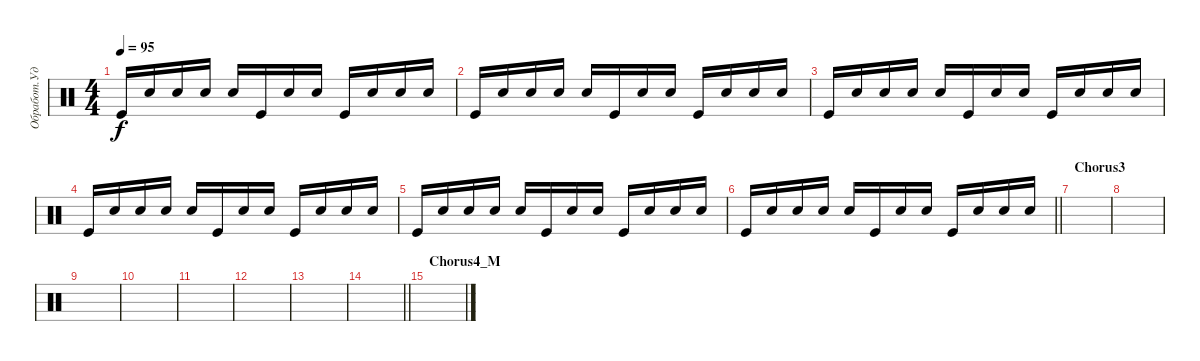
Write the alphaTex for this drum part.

\track ("Обработ.Ударные" "Обработ.Уд") {instrument percussion}
\staff {score}
\articulation defaults
\ts (4 4)
\tempo 95
\clef neutral
\ks c "Kick (hit)".16{dy f} "Snare (hit)".16 "Snare (hit)".16 "Electric Snare (hit)".16 "Snare (hit)".16 "Kick (hit)".16 "Snare (hit)".16 "Snare (hit)".16 "Kick (hit)".16 "Snare (hit)".16 "Snare (hit)".16 "Electric Snare (hit)".16
|
"Kick (hit)".16 "Snare (hit)".16 "Snare (hit)".16 "Electric Snare (hit)".16 "Snare (hit)".16 "Kick (hit)".16 "Snare (hit)".16 "Snare (hit)".16 "Kick (hit)".16 "Snare (hit)".16 "Snare (hit)".16 "Electric Snare (hit)".16 |
"Kick (hit)".16 "Snare (hit)".16 "Snare (hit)".16 "Electric Snare (hit)".16 "Snare (hit)".16 "Kick (hit)".16 "Snare (hit)".16 "Snare (hit)".16 "Kick (hit)".16 "Snare (hit)".16 "Snare (hit)".16 "Electric Snare (hit)".16 |
"Kick (hit)".16 "Snare (hit)".16 "Snare (hit)".16 "Electric Snare (hit)".16 "Snare (hit)".16 "Kick (hit)".16 "Snare (hit)".16 "Snare (hit)".16 "Kick (hit)".16 "Snare (hit)".16 "Snare (hit)".16 "Electric Snare (hit)".16 |
"Kick (hit)".16 "Snare (hit)".16 "Snare (hit)".16 "Electric Snare (hit)".16 "Snare (hit)".16 "Kick (hit)".16 "Snare (hit)".16 "Snare (hit)".16 "Kick (hit)".16 "Snare (hit)".16 "Snare (hit)".16 "Electric Snare (hit)".16 |
\barLineRight lightlight "Kick (hit)".16 "Snare (hit)".16 "Snare (hit)".16 "Electric Snare (hit)".16 "Snare (hit)".16 "Kick (hit)".16 "Snare (hit)".16 "Snare (hit)".16 "Kick (hit)".16 "Snare (hit)".16 "Snare (hit)".16 "Electric Snare (hit)".16
|
\section ("" "Chorus3")
|
|
|
|
|
|
|
\barLineRight lightlight
|
\section ("" "Chorus4_M")
